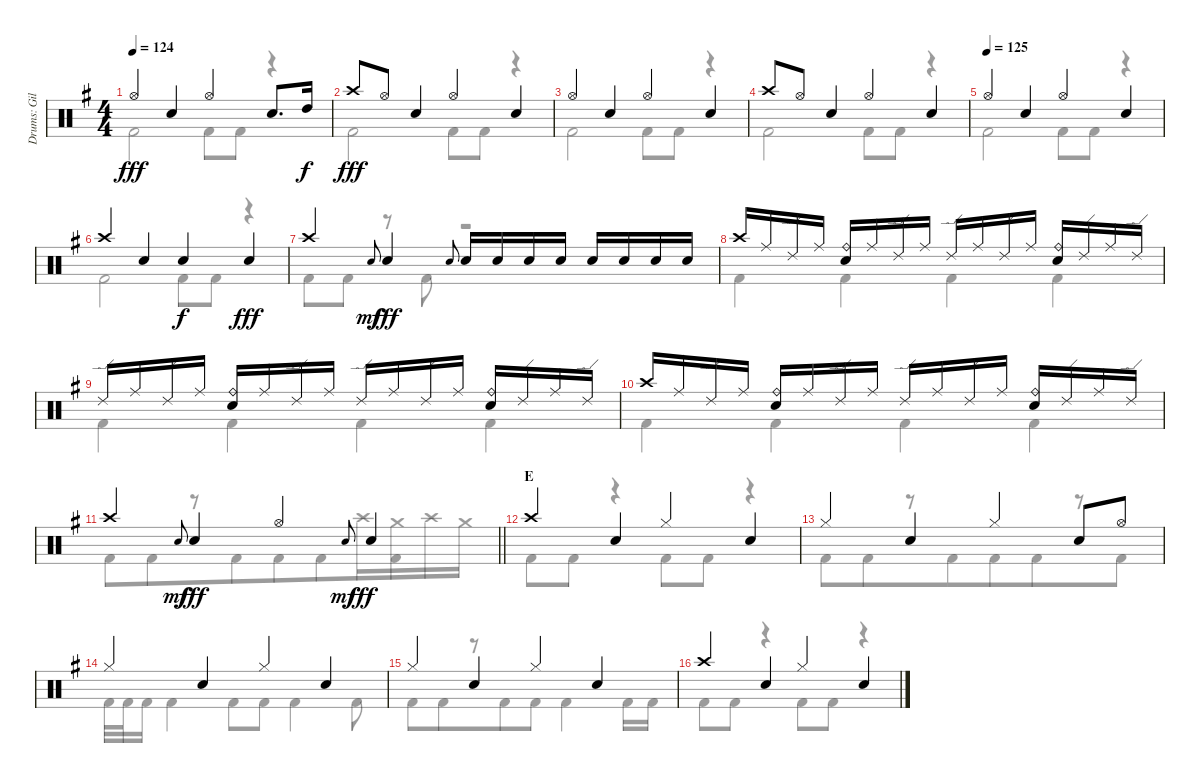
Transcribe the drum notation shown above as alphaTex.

\track ("Drums: Gil" "Drums: Gil") {instrument percussion}
\staff {score}
\articulation defaults
\voice
\ts (4 4)
\tempo 124
\clef neutral
\ks g "Hi-Hat (open)".4{dy fff} "Snare (hit) 2".4 "Hi-Hat (open)".4 "Snare (hit) 2".8{d} "High Tom (hit)".16{dy f}
|
"Crash high (hit)".8{dy fff} "Hi-Hat (open)".8 "Snare (hit) 2".4 "Hi-Hat (open)".4 "Snare (hit) 2".4 |
"Hi-Hat (open)".4 "Snare (hit) 2".4 "Hi-Hat (open)".4 "Snare (hit) 2".4 |
"Crash high (hit)".8 "Hi-Hat (open)".8 "Snare (hit) 2".4 "Hi-Hat (open)".4 "Snare (hit) 2".4 |
\tempo (125)
"Hi-Hat (open)".4 "Snare (hit) 2".4 "Hi-Hat (open)".4 "Snare (hit) 2".4 |
"Crash high (hit)".4 "Snare (hit) 2".4 "Snare (hit) 2".4{dy f} "Snare (hit) 2".4{dy fff} |
"Crash high (hit)".4 "Electric Snare (hit)".8{gr onbeat dy mf} "Snare (hit) 2".4{dy fff} "Electric Snare (hit)".8{gr onbeat} "Snare (hit) 2".16 "Snare (hit) 2".16 "Snare (hit) 2".16 "Snare (hit) 2".16 "Snare (hit) 2".16 "Snare (hit) 2".16 "Snare (hit) 2".16 "Snare (hit) 2".16 |
"Crash high (hit)".16 "Ride (middle)".16 "Ride (edge) 2".16 "Ride (middle)".16 ("Ride (bell)" "Snare (hit) 2").16 "Ride (middle)".16 "Ride (edge) 2".16 "Ride (middle)".16 "Ride (edge) 2".16 "Ride (middle)".16 "Ride (edge) 2".16 "Ride (middle)".16 ("Ride (bell)" "Snare (hit) 2").16 "Ride (edge) 2".16 "Ride (middle)".16 "Ride (edge) 2".16 |
"Ride (edge) 2".16 "Ride (middle)".16 "Ride (edge) 2".16 "Ride (middle)".16 ("Ride (bell)" "Snare (hit) 2").16 "Ride (middle)".16 "Ride (edge) 2".16 "Ride (middle)".16 "Ride (edge) 2".16 "Ride (middle)".16 "Ride (edge) 2".16 "Ride (middle)".16 ("Ride (bell)" "Snare (hit) 2").16 "Ride (edge) 2".16 "Ride (middle)".16 "Ride (edge) 2".16 |
"Crash high (hit)".16 "Ride (middle)".16 "Ride (edge) 2".16 "Ride (middle)".16 ("Ride (bell)" "Snare (hit) 2").16 "Ride (middle)".16 "Ride (edge) 2".16 "Ride (middle)".16 "Ride (edge) 2".16 "Ride (middle)".16 "Ride (edge) 2".16 "Ride (middle)".16 ("Ride (bell)" "Snare (hit) 2").16 "Ride (edge) 2".16 "Ride (middle)".16 "Ride (edge) 2".16 |
\barLineRight lightlight "Crash high (hit)".4 "Electric Snare (hit)".8{gr onbeat dy mf} "Snare (hit) 2".4{dy fff} "Hi-Hat (open)".4 "Electric Snare (hit)".8{gr onbeat dy mf} "Snare (hit) 2".4{dy fff}
|
\section ("" "E")
"Crash high (hit)".4 "Electric Snare (hit)".4 "Hi-Hat (closed)".4 "Electric Snare (hit)".4 |
"Hi-Hat (closed)".4 "Electric Snare (hit)".4 "Hi-Hat (closed)".4 "Electric Snare (hit)".8 "Hi-Hat (open)".8 |
"Hi-Hat (closed)".4 "Electric Snare (hit)".4 "Hi-Hat (closed)".4 "Electric Snare (hit)".4 |
"Hi-Hat (closed)".4 "Electric Snare (hit)".4 "Hi-Hat (closed)".4 "Electric Snare (hit)".4 |
"Crash high (hit)".4 "Electric Snare (hit)".4 "Hi-Hat (closed)".4 "Electric Snare (hit)".4
\voice
\clef neutral
\ottava regular
\simile none
\ks g "Kick (hit) 2".2{dy fff} "Kick (hit) 2".8 "Kick (hit) 2".8
r.4 |
"Kick (hit) 2".2 "Kick (hit) 2".8 "Kick (hit) 2".8 r.4 |
"Kick (hit) 2".2 "Kick (hit) 2".8 "Kick (hit) 2".8 r.4 |
"Kick (hit) 2".2 "Kick (hit) 2".8 "Kick (hit) 2".8 r.4 |
"Kick (hit) 2".2 "Kick (hit) 2".8 "Kick (hit) 2".8 r.4 |
"Kick (hit) 2".2 "Kick (hit) 2".8 "Kick (hit) 2".8 r.4 |
"Kick (hit) 2".8 "Kick (hit) 2".8 r.8 "Kick (hit) 2".8 r.2 |
"Kick (hit) 2".4 "Kick (hit) 2".4 "Kick (hit) 2".4 "Kick (hit) 2".4 |
"Kick (hit) 2".4 "Kick (hit) 2".4 "Kick (hit) 2".4 "Kick (hit) 2".4 |
"Kick (hit) 2".4 "Kick (hit) 2".4 "Kick (hit) 2".4 "Kick (hit) 2".4 |
\barLineRight lightlight "Kick (hit) 2".8 "Kick (hit) 2".8{beam merge}
r.8 "Kick (hit) 2".8{beam merge} "Kick (hit) 2".8 "Kick (hit) 2".8{beam merge} "Crash high (hit)".16 ("Crash medium (hit)" "Kick (hit) 2").16 "Crash high (hit)".16 "Crash medium (hit)".16 |
"Kick (hit) 2".8 "Kick (hit) 2".8 r.4{beam merge} "Kick (hit) 2".8 "Kick (hit) 2".8 r.4 |
"Kick (hit) 2".8 "Kick (hit) 2".8{beam merge} r.8 "Kick (hit) 2".8{beam merge} "Kick (hit) 2".8 "Kick (hit) 2".8{beam merge} r.8 "Kick (hit) 2".8 |
"Kick (hit) 2".32 "Kick (hit) 2".32 "Kick (hit) 2".16 "Kick (hit) 2".4 "Kick (hit) 2".8{beam merge} "Kick (hit) 2".8 "Kick (hit) 2".4 "Kick (hit) 2".8 |
"Kick (hit) 2".8 "Kick (hit) 2".8{beam merge} r.8 "Kick (hit) 2".8{beam merge} "Kick (hit) 2".8 "Kick (hit) 2".4 "Kick (hit) 2".16 "Kick (hit) 2".16 |
"Kick (hit) 2".8 "Kick (hit) 2".8 r.4{beam merge} "Kick (hit) 2".8 "Kick (hit) 2".8 r.4
